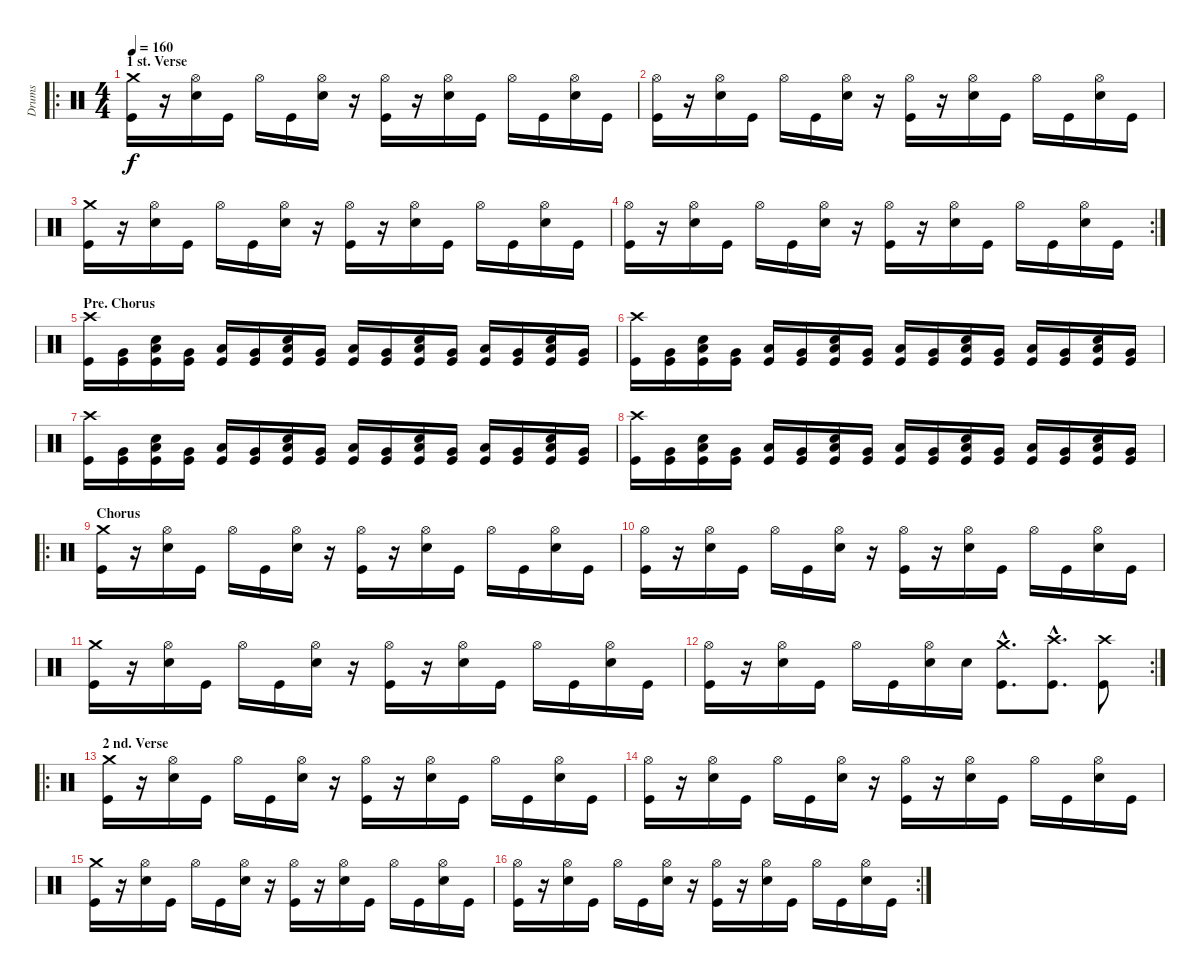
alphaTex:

\track ("Drums" "Drums") {instrument percussion}
\staff {score}
\articulation defaults
\ro
\ts (4 4)
\section ("" "1 st. Verse")
\tempo 160
\clef neutral
\ks c
("Crash medium (hit)" "Kick (hit)").16{dy f} r.16 ("Hi-Hat (open)" "Electric Snare (hit)").16 "Kick (hit)".16 "Hi-Hat (open)".16 "Kick (hit)".16 ("Hi-Hat (open)" "Electric Snare (hit)").16 r.16 ("Hi-Hat (open)" "Kick (hit)").16 r.16 ("Hi-Hat (open)" "Electric Snare (hit)").16 "Kick (hit)".16 "Hi-Hat (open)".16 "Kick (hit)".16 ("Hi-Hat (open)" "Electric Snare (hit)").16 "Kick (hit)".16 |
("Hi-Hat (open)" "Kick (hit)").16 r.16 ("Hi-Hat (open)" "Electric Snare (hit)").16 "Kick (hit)".16 "Hi-Hat (open)".16 "Kick (hit)".16 ("Hi-Hat (open)" "Electric Snare (hit)").16 r.16 ("Hi-Hat (open)" "Kick (hit)").16 r.16 ("Hi-Hat (open)" "Electric Snare (hit)").16 "Kick (hit)".16 "Hi-Hat (open)".16 "Kick (hit)".16 ("Hi-Hat (open)" "Electric Snare (hit)").16 "Kick (hit)".16 |
("Crash medium (hit)" "Kick (hit)").16 r.16 ("Hi-Hat (open)" "Electric Snare (hit)").16 "Kick (hit)".16 "Hi-Hat (open)".16 "Kick (hit)".16 ("Hi-Hat (open)" "Electric Snare (hit)").16 r.16 ("Hi-Hat (open)" "Kick (hit)").16 r.16 ("Hi-Hat (open)" "Electric Snare (hit)").16 "Kick (hit)".16 "Hi-Hat (open)".16 "Kick (hit)".16 ("Hi-Hat (open)" "Electric Snare (hit)").16 "Kick (hit)".16 |
\rc 2
("Hi-Hat (open)" "Kick (hit)").16 r.16 ("Hi-Hat (open)" "Electric Snare (hit)").16 "Kick (hit)".16 "Hi-Hat (open)".16 "Kick (hit)".16 ("Hi-Hat (open)" "Electric Snare (hit)").16 r.16 ("Hi-Hat (open)" "Kick (hit)").16 r.16 ("Hi-Hat (open)" "Electric Snare (hit)").16 "Kick (hit)".16 "Hi-Hat (open)".16 "Kick (hit)".16 ("Hi-Hat (open)" "Electric Snare (hit)").16 "Kick (hit)".16 |
\section ("" "Pre. Chorus")
("Crash high (hit)" "Kick (hit)").16 ("Very Low Tom (hit)" "Kick (hit)").16 ("Low Tom (hit)" "Electric Snare (hit)" "Kick (hit)").16 ("Very Low Tom (hit)" "Kick (hit)").16 ("Low Tom (hit)" "Kick (hit)").16 ("Very Low Tom (hit)" "Kick (hit)").16 ("Low Tom (hit)" "Electric Snare (hit)" "Kick (hit)").16 ("Very Low Tom (hit)" "Kick (hit)").16 ("Low Tom (hit)" "Kick (hit)").16 ("Very Low Tom (hit)" "Kick (hit)").16 ("Low Tom (hit)" "Electric Snare (hit)" "Kick (hit)").16 ("Very Low Tom (hit)" "Kick (hit)").16 ("Low Tom (hit)" "Kick (hit)").16 ("Very Low Tom (hit)" "Kick (hit)").16 ("Low Tom (hit)" "Electric Snare (hit)" "Kick (hit)").16 ("Very Low Tom (hit)" "Kick (hit)").16 |
("Crash high (hit)" "Kick (hit)").16 ("Very Low Tom (hit)" "Kick (hit)").16 ("Low Tom (hit)" "Electric Snare (hit)" "Kick (hit)").16 ("Very Low Tom (hit)" "Kick (hit)").16 ("Low Tom (hit)" "Kick (hit)").16 ("Very Low Tom (hit)" "Kick (hit)").16 ("Low Tom (hit)" "Electric Snare (hit)" "Kick (hit)").16 ("Very Low Tom (hit)" "Kick (hit)").16 ("Low Tom (hit)" "Kick (hit)").16 ("Very Low Tom (hit)" "Kick (hit)").16 ("Low Tom (hit)" "Electric Snare (hit)" "Kick (hit)").16 ("Very Low Tom (hit)" "Kick (hit)").16 ("Low Tom (hit)" "Kick (hit)").16 ("Very Low Tom (hit)" "Kick (hit)").16 ("Low Tom (hit)" "Electric Snare (hit)" "Kick (hit)").16 ("Very Low Tom (hit)" "Kick (hit)").16 |
("Crash high (hit)" "Kick (hit)").16 ("Very Low Tom (hit)" "Kick (hit)").16 ("Low Tom (hit)" "Electric Snare (hit)" "Kick (hit)").16 ("Very Low Tom (hit)" "Kick (hit)").16 ("Low Tom (hit)" "Kick (hit)").16 ("Very Low Tom (hit)" "Kick (hit)").16 ("Low Tom (hit)" "Electric Snare (hit)" "Kick (hit)").16 ("Very Low Tom (hit)" "Kick (hit)").16 ("Low Tom (hit)" "Kick (hit)").16 ("Very Low Tom (hit)" "Kick (hit)").16 ("Low Tom (hit)" "Electric Snare (hit)" "Kick (hit)").16 ("Very Low Tom (hit)" "Kick (hit)").16 ("Low Tom (hit)" "Kick (hit)").16 ("Very Low Tom (hit)" "Kick (hit)").16 ("Low Tom (hit)" "Electric Snare (hit)" "Kick (hit)").16 ("Very Low Tom (hit)" "Kick (hit)").16 |
("Crash high (hit)" "Kick (hit)").16 ("Very Low Tom (hit)" "Kick (hit)").16 ("Low Tom (hit)" "Electric Snare (hit)" "Kick (hit)").16 ("Very Low Tom (hit)" "Kick (hit)").16 ("Low Tom (hit)" "Kick (hit)").16 ("Very Low Tom (hit)" "Kick (hit)").16 ("Low Tom (hit)" "Electric Snare (hit)" "Kick (hit)").16 ("Very Low Tom (hit)" "Kick (hit)").16 ("Low Tom (hit)" "Kick (hit)").16 ("Very Low Tom (hit)" "Kick (hit)").16 ("Low Tom (hit)" "Electric Snare (hit)" "Kick (hit)").16 ("Very Low Tom (hit)" "Kick (hit)").16 ("Low Tom (hit)" "Kick (hit)").16 ("Very Low Tom (hit)" "Kick (hit)").16 ("Low Tom (hit)" "Electric Snare (hit)" "Kick (hit)").16 ("Very Low Tom (hit)" "Kick (hit)").16 |
\ro
\section ("" "Chorus")
("Crash medium (hit)" "Kick (hit)").16 r.16 ("Hi-Hat (open)" "Electric Snare (hit)").16 "Kick (hit)".16 "Hi-Hat (open)".16 "Kick (hit)".16 ("Hi-Hat (open)" "Electric Snare (hit)").16 r.16 ("Hi-Hat (open)" "Kick (hit)").16 r.16 ("Hi-Hat (open)" "Electric Snare (hit)").16 "Kick (hit)".16 "Hi-Hat (open)".16 "Kick (hit)".16 ("Hi-Hat (open)" "Electric Snare (hit)").16 "Kick (hit)".16 |
("Hi-Hat (open)" "Kick (hit)").16 r.16 ("Hi-Hat (open)" "Electric Snare (hit)").16 "Kick (hit)".16 "Hi-Hat (open)".16 "Kick (hit)".16 ("Hi-Hat (open)" "Electric Snare (hit)").16 r.16 ("Hi-Hat (open)" "Kick (hit)").16 r.16 ("Hi-Hat (open)" "Electric Snare (hit)").16 "Kick (hit)".16 "Hi-Hat (open)".16 "Kick (hit)".16 ("Hi-Hat (open)" "Electric Snare (hit)").16 "Kick (hit)".16 |
("Crash medium (hit)" "Kick (hit)").16 r.16 ("Hi-Hat (open)" "Electric Snare (hit)").16 "Kick (hit)".16 "Hi-Hat (open)".16 "Kick (hit)".16 ("Hi-Hat (open)" "Electric Snare (hit)").16 r.16 ("Hi-Hat (open)" "Kick (hit)").16 r.16 ("Hi-Hat (open)" "Electric Snare (hit)").16 "Kick (hit)".16 "Hi-Hat (open)".16 "Kick (hit)".16 ("Hi-Hat (open)" "Electric Snare (hit)").16 "Kick (hit)".16 |
\rc 2
("Hi-Hat (open)" "Kick (hit)").16 r.16 ("Hi-Hat (open)" "Electric Snare (hit)").16 "Kick (hit)".16 "Hi-Hat (open)".16 "Kick (hit)".16 ("Hi-Hat (open)" "Electric Snare (hit)").16 "Electric Snare (hit)".16 ("Crash medium (hit)"{hac} "Kick (hit)"{hac}).8{d} ("Crash high (hit)"{hac} "Kick (hit)"{hac}).8{d} ("Crash high (hit)" "Kick (hit)").8 |
\ro
\section ("" "2 nd. Verse")
("Crash medium (hit)" "Kick (hit)").16 r.16 ("Hi-Hat (open)" "Electric Snare (hit)").16 "Kick (hit)".16 "Hi-Hat (open)".16 "Kick (hit)".16 ("Hi-Hat (open)" "Electric Snare (hit)").16 r.16 ("Hi-Hat (open)" "Kick (hit)").16 r.16 ("Hi-Hat (open)" "Electric Snare (hit)").16 "Kick (hit)".16 "Hi-Hat (open)".16 "Kick (hit)".16 ("Hi-Hat (open)" "Electric Snare (hit)").16 "Kick (hit)".16 |
("Hi-Hat (open)" "Kick (hit)").16 r.16 ("Hi-Hat (open)" "Electric Snare (hit)").16 "Kick (hit)".16 "Hi-Hat (open)".16 "Kick (hit)".16 ("Hi-Hat (open)" "Electric Snare (hit)").16 r.16 ("Hi-Hat (open)" "Kick (hit)").16 r.16 ("Hi-Hat (open)" "Electric Snare (hit)").16 "Kick (hit)".16 "Hi-Hat (open)".16 "Kick (hit)".16 ("Hi-Hat (open)" "Electric Snare (hit)").16 "Kick (hit)".16 |
("Crash medium (hit)" "Kick (hit)").16 r.16 ("Hi-Hat (open)" "Electric Snare (hit)").16 "Kick (hit)".16 "Hi-Hat (open)".16 "Kick (hit)".16 ("Hi-Hat (open)" "Electric Snare (hit)").16 r.16 ("Hi-Hat (open)" "Kick (hit)").16 r.16 ("Hi-Hat (open)" "Electric Snare (hit)").16 "Kick (hit)".16 "Hi-Hat (open)".16 "Kick (hit)".16 ("Hi-Hat (open)" "Electric Snare (hit)").16 "Kick (hit)".16 |
\rc 2
("Hi-Hat (open)" "Kick (hit)").16 r.16 ("Hi-Hat (open)" "Electric Snare (hit)").16 "Kick (hit)".16 "Hi-Hat (open)".16 "Kick (hit)".16 ("Hi-Hat (open)" "Electric Snare (hit)").16 r.16 ("Hi-Hat (open)" "Kick (hit)").16 r.16 ("Hi-Hat (open)" "Electric Snare (hit)").16 "Kick (hit)".16 "Hi-Hat (open)".16 "Kick (hit)".16 ("Hi-Hat (open)" "Electric Snare (hit)").16 "Kick (hit)".16
